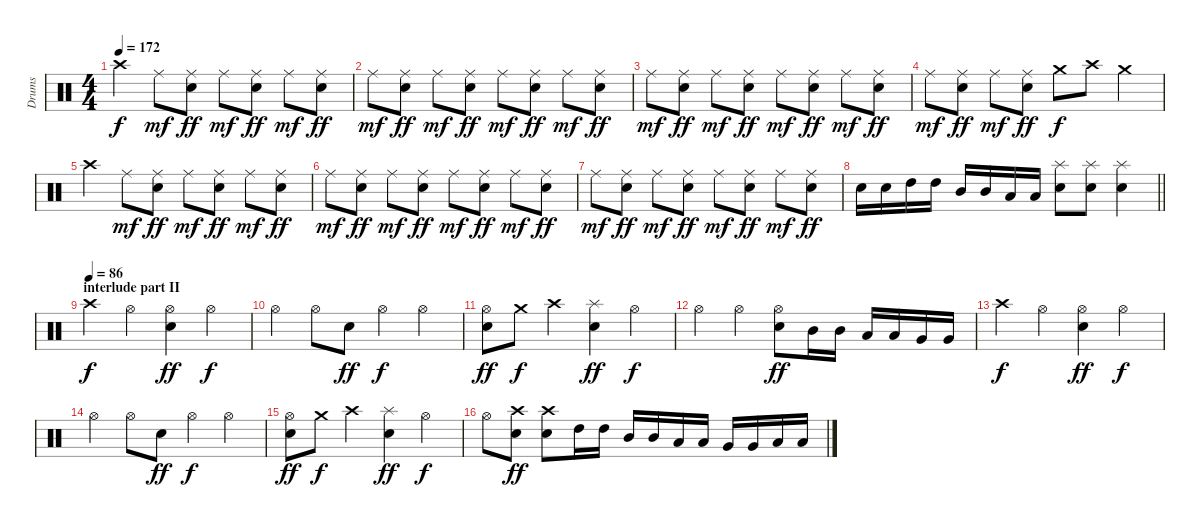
\track ("Drums" "Drums") {instrument percussion}
\staff {score}
\articulation defaults
\ts (4 4)
\section ("" "")
\tempo 172
\clef neutral
\ks c "Crash high (hit)".4{dy f} "Ride (middle)".8{dy mf}
("Ride (middle)" "Snare (hit) 2").8{dy ff} "Ride (middle)".8{dy mf} ("Ride (middle)" "Snare (hit) 2").8{dy ff} "Ride (middle)".8{dy mf} ("Ride (middle)" "Snare (hit) 2").8{dy ff} |
"Ride (middle)".8{dy mf} ("Ride (middle)" "Snare (hit) 2").8{dy ff} "Ride (middle)".8{dy mf} ("Ride (middle)" "Snare (hit) 2").8{dy ff} "Ride (middle)".8{dy mf} ("Ride (middle)" "Snare (hit) 2").8{dy ff} "Ride (middle)".8{dy mf} ("Ride (middle)" "Snare (hit) 2").8{dy ff} |
"Ride (middle)".8{dy mf} ("Ride (middle)" "Snare (hit) 2").8{dy ff} "Ride (middle)".8{dy mf} ("Ride (middle)" "Snare (hit) 2").8{dy ff} "Ride (middle)".8{dy mf} ("Ride (middle)" "Snare (hit) 2").8{dy ff} "Ride (middle)".8{dy mf} ("Ride (middle)" "Snare (hit) 2").8{dy ff} |
"Ride (middle)".8{dy mf} ("Ride (middle)" "Snare (hit) 2").8{dy ff} "Ride (middle)".8{dy mf} ("Ride (middle)" "Snare (hit) 2").8{dy ff} "Crash medium (hit)".8{dy f} "Crash high (hit)".8 "Crash medium (hit)".4 |
"Crash high (hit)".4 "Ride (middle)".8{dy mf} ("Ride (middle)" "Snare (hit) 2").8{dy ff} "Ride (middle)".8{dy mf} ("Ride (middle)" "Snare (hit) 2").8{dy ff} "Ride (middle)".8{dy mf} ("Ride (middle)" "Snare (hit) 2").8{dy ff} |
"Ride (middle)".8{dy mf} ("Ride (middle)" "Snare (hit) 2").8{dy ff} "Ride (middle)".8{dy mf} ("Ride (middle)" "Snare (hit) 2").8{dy ff} "Ride (middle)".8{dy mf} ("Ride (middle)" "Snare (hit) 2").8{dy ff} "Ride (middle)".8{dy mf} ("Ride (middle)" "Snare (hit) 2").8{dy ff} |
"Ride (middle)".8{dy mf} ("Ride (middle)" "Snare (hit) 2").8{dy ff} "Ride (middle)".8{dy mf} ("Ride (middle)" "Snare (hit) 2").8{dy ff} "Ride (middle)".8{dy mf} ("Ride (middle)" "Snare (hit) 2").8{dy ff} "Ride (middle)".8{dy mf} ("Ride (middle)" "Snare (hit) 2").8{dy ff} |
\barLineRight lightlight "Snare (hit) 2".16 "Snare (hit) 2".16 "High Tom (hit)".16 "High Tom (hit)".16 "Mid Tom (hit)".16 "Mid Tom (hit)".16 "Low Tom (hit)".16 "Low Tom (hit)".16
("Splash (hit)" "Snare (hit) 2").8 ("Splash (hit)" "Snare (hit) 2").8 ("Splash (hit)" "Snare (hit) 2").4 |
\section ("" "interlude part II")
\tempo (86)
"Crash high (hit)".4{dy f} "Hi-Hat (open)".4 ("Hi-Hat (open)" "Snare (hit) 2").4{dy ff} "Hi-Hat (open)".4{dy f} |
"Hi-Hat (open)".4 "Hi-Hat (open)".8 "Snare (hit) 2".8{dy ff} "Hi-Hat (open)".4{dy f} "Hi-Hat (open)".4 |
("Hi-Hat (open)" "Snare (hit) 2").8{dy ff} "Crash medium (hit)".8{dy f} "Crash high (hit)".4 ("Splash (hit)" "Snare (hit) 2").4{dy ff} "Hi-Hat (open)".4{dy f} |
"Hi-Hat (open)".4 "Hi-Hat (open)".4 ("Hi-Hat (open)" "Snare (hit) 2").8{dy ff} "Mid Tom (hit)".16 "Mid Tom (hit)".16 "Low Tom (hit)".16 "Low Tom (hit)".16 "Very Low Tom (hit)".16 "Very Low Tom (hit)".16 |
"Crash high (hit)".4{dy f} "Hi-Hat (open)".4 ("Hi-Hat (open)" "Snare (hit) 2").4{dy ff} "Hi-Hat (open)".4{dy f} |
"Hi-Hat (open)".4 "Hi-Hat (open)".8 "Snare (hit) 2".8{dy ff} "Hi-Hat (open)".4{dy f} "Hi-Hat (open)".4 |
("Hi-Hat (open)" "Snare (hit) 2").8{dy ff} "Crash medium (hit)".8{dy f} "Crash high (hit)".4 ("Splash (hit)" "Snare (hit) 2").4{dy ff} "Hi-Hat (open)".4{dy f} |
"Hi-Hat (open)".8 ("Crash high (hit)" "Snare (hit) 2").8{dy ff} ("Crash high (hit)" "Snare (hit) 2").8 "High Tom (hit)".16 "High Tom (hit)".16 "Mid Tom (hit)".16 "Mid Tom (hit)".16 "Low Tom (hit)".16 "Low Tom (hit)".16 "Very Low Tom (hit)".16 "Very Low Tom (hit)".16 "Low Floor Tom (hit)".16 "Low Floor Tom (hit)".16
